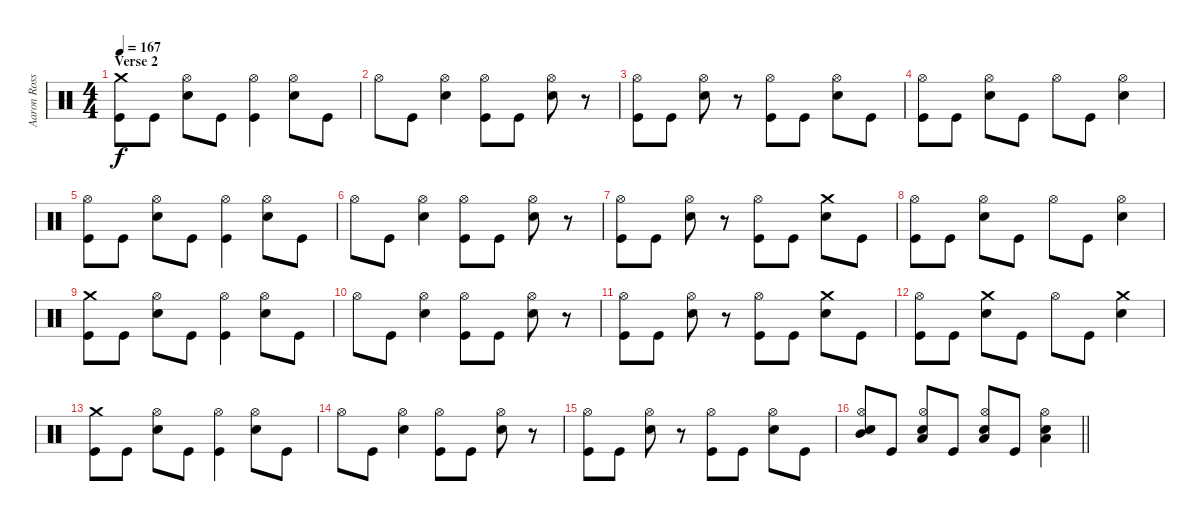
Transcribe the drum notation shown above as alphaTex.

\track ("Aaron Rossi (Drums)" "Aaron Ross") {instrument percussion}
\staff {score}
\articulation defaults
\ts (4 4)
\section ("" "Verse 2")
\tempo 167
\clef neutral
\ks c
("Crash medium (hit)" "Kick (hit)").8{dy f} "Kick (hit)".8 ("Snare (hit) 2" "Hi-Hat (open)").8 "Kick (hit)".8 ("Hi-Hat (open)" "Kick (hit)").4 ("Snare (hit) 2" "Hi-Hat (open)").8 "Kick (hit)".8 |
"Hi-Hat (open)".8 "Kick (hit)".8 ("Snare (hit) 2" "Hi-Hat (open)").4 ("Hi-Hat (open)" "Kick (hit)").8 "Kick (hit)".8 ("Snare (hit) 2" "Hi-Hat (open)").8 r.8 |
("Hi-Hat (open)" "Kick (hit)").8 "Kick (hit)".8 ("Snare (hit) 2" "Hi-Hat (open)").8 r.8 ("Hi-Hat (open)" "Kick (hit)").8 "Kick (hit)".8 ("Snare (hit) 2" "Hi-Hat (open)").8 "Kick (hit)".8 |
("Hi-Hat (open)" "Kick (hit)").8 "Kick (hit)".8 ("Snare (hit) 2" "Hi-Hat (open)").8 "Kick (hit)".8 "Hi-Hat (open)".8 "Kick (hit)".8 ("Snare (hit) 2" "Hi-Hat (open)").4 |
("Hi-Hat (open)" "Kick (hit)").8 "Kick (hit)".8 ("Snare (hit) 2" "Hi-Hat (open)").8 "Kick (hit)".8 ("Hi-Hat (open)" "Kick (hit)").4 ("Snare (hit) 2" "Hi-Hat (open)").8 "Kick (hit)".8 |
"Hi-Hat (open)".8 "Kick (hit)".8 ("Snare (hit) 2" "Hi-Hat (open)").4 ("Hi-Hat (open)" "Kick (hit)").8 "Kick (hit)".8 ("Snare (hit) 2" "Hi-Hat (open)").8 r.8 |
("Hi-Hat (open)" "Kick (hit)").8 "Kick (hit)".8 ("Snare (hit) 2" "Hi-Hat (open)").8 r.8 ("Hi-Hat (open)" "Kick (hit)").8 "Kick (hit)".8 ("Crash medium (hit)" "Snare (hit) 2").8 "Kick (hit)".8 |
("Hi-Hat (open)" "Kick (hit)").8 "Kick (hit)".8 ("Snare (hit) 2" "Hi-Hat (open)").8 "Kick (hit)".8 "Hi-Hat (open)".8 "Kick (hit)".8 ("Snare (hit) 2" "Hi-Hat (open)").4 |
("Crash medium (hit)" "Kick (hit)").8 "Kick (hit)".8 ("Snare (hit) 2" "Hi-Hat (open)").8 "Kick (hit)".8 ("Hi-Hat (open)" "Kick (hit)").4 ("Snare (hit) 2" "Hi-Hat (open)").8 "Kick (hit)".8 |
"Hi-Hat (open)".8 "Kick (hit)".8 ("Snare (hit) 2" "Hi-Hat (open)").4 ("Hi-Hat (open)" "Kick (hit)").8 "Kick (hit)".8 ("Snare (hit) 2" "Hi-Hat (open)").8 r.8 |
("Hi-Hat (open)" "Kick (hit)").8 "Kick (hit)".8 ("Snare (hit) 2" "Hi-Hat (open)").8 r.8 ("Hi-Hat (open)" "Kick (hit)").8 "Kick (hit)".8 ("Crash medium (hit)" "Snare (hit) 2").8 "Kick (hit)".8 |
("Hi-Hat (open)" "Kick (hit)").8 "Kick (hit)".8 ("Crash medium (hit)" "Snare (hit) 2").8 "Kick (hit)".8 "Hi-Hat (open)".8 "Kick (hit)".8 ("Crash medium (hit)" "Snare (hit) 2").4 |
("Crash medium (hit)" "Kick (hit)").8 "Kick (hit)".8 ("Snare (hit) 2" "Hi-Hat (open)").8 "Kick (hit)".8 ("Hi-Hat (open)" "Kick (hit)").4 ("Snare (hit) 2" "Hi-Hat (open)").8 "Kick (hit)".8 |
"Hi-Hat (open)".8 "Kick (hit)".8 ("Snare (hit) 2" "Hi-Hat (open)").4 ("Hi-Hat (open)" "Kick (hit)").8 "Kick (hit)".8 ("Snare (hit) 2" "Hi-Hat (open)").8 r.8 |
("Hi-Hat (open)" "Kick (hit)").8 "Kick (hit)".8 ("Snare (hit) 2" "Hi-Hat (open)").8 r.8 ("Hi-Hat (open)" "Kick (hit)").8 "Kick (hit)".8 ("Snare (hit) 2" "Hi-Hat (open)").8 "Kick (hit)".8 |
\barLineRight lightlight
("Snare (hit) 2" "Hi-Hat (open)" "Mid Tom (hit)").8 "Kick (hit)".8 ("Snare (hit) 2" "Hi-Hat (open)" "Low Tom (hit)").8 "Kick (hit)".8 ("Snare (hit) 2" "Hi-Hat (open)" "Low Floor Tom (hit)").8 "Kick (hit)".8 ("Snare (hit) 2" "Hi-Hat (open)" "Low Floor Tom (hit)").4
